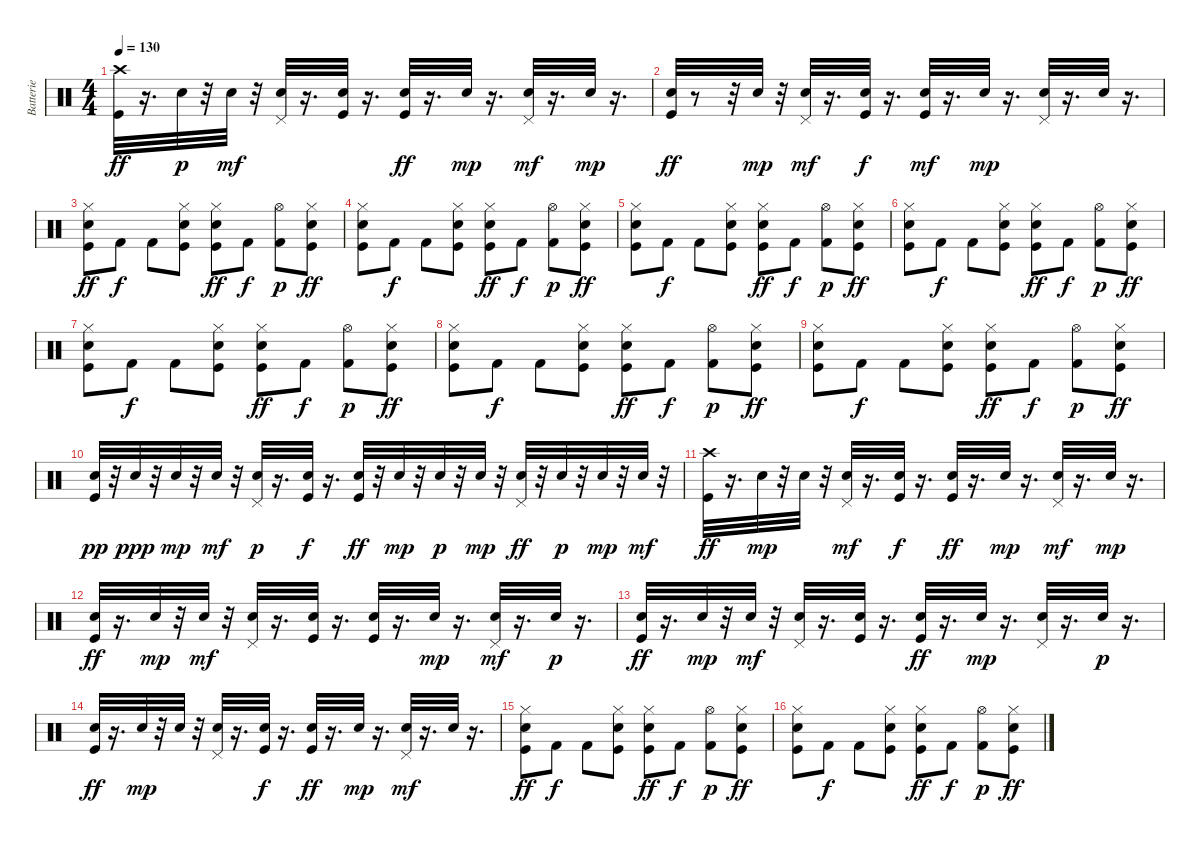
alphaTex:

\track ("Batterie" "Batterie") {instrument percussion}
\staff {score}
\articulation defaults
\ts (4 4)
\tempo 130
\clef neutral
\ks c
("Crash high (hit)" "Kick (hit)").32{dy ff} r.16{d} "Electric Snare (hit)".32{dy p} r.32 "Electric Snare (hit)".32{dy mf} r.32 ("Pedal Hi-Hat (hit)" "Electric Snare (hit)").32 r.16{d} ("Electric Snare (hit)" "Kick (hit)").32 r.16{d} ("Kick (hit)" "Electric Snare (hit)").32{dy ff} r.16{d} "Electric Snare (hit)".32{dy mp} r.16{d} ("Pedal Hi-Hat (hit)" "Electric Snare (hit)").32{dy mf} r.16{d} "Electric Snare (hit)".32{dy mp} r.16{d} |
("Kick (hit)" "Electric Snare (hit)").32{dy ff} r.8 r.32 "Electric Snare (hit)".32{dy mp} r.32 ("Pedal Hi-Hat (hit)" "Electric Snare (hit)").32{dy mf} r.16{d} ("Kick (hit)" "Electric Snare (hit)").32{dy f} r.16{d} ("Kick (hit)" "Electric Snare (hit)").32{dy mf} r.16{d} "Electric Snare (hit)".32{dy mp} r.16{d} ("Pedal Hi-Hat (hit)" "Electric Snare (hit)").32 r.16{d} "Electric Snare (hit)".32 r.16{d} |
("Kick (hit)" "Electric Snare (hit)" "Hi-Hat (closed)").8{dy ff} "Kick (hit) 2".8{dy f} "Kick (hit) 2".8 ("Hi-Hat (closed)" "Kick (hit)" "Electric Snare (hit)").8 ("Kick (hit)" "Hi-Hat (closed)" "Electric Snare (hit)").8{dy ff} "Kick (hit) 2".8{dy f} ("Hi-Hat (open)" "Kick (hit) 2").8{dy p} ("Kick (hit)" "Hi-Hat (closed)" "Electric Snare (hit)").8{dy ff} |
("Kick (hit)" "Electric Snare (hit)" "Hi-Hat (closed)").8 "Kick (hit) 2".8{dy f} "Kick (hit) 2".8 ("Hi-Hat (closed)" "Kick (hit)" "Electric Snare (hit)").8 ("Kick (hit)" "Hi-Hat (closed)" "Electric Snare (hit)").8{dy ff} "Kick (hit) 2".8{dy f} ("Hi-Hat (open)" "Kick (hit) 2").8{dy p} ("Kick (hit)" "Hi-Hat (closed)" "Electric Snare (hit)").8{dy ff} |
("Kick (hit)" "Electric Snare (hit)" "Hi-Hat (closed)").8 "Kick (hit) 2".8{dy f} "Kick (hit) 2".8 ("Hi-Hat (closed)" "Kick (hit)" "Electric Snare (hit)").8 ("Kick (hit)" "Hi-Hat (closed)" "Electric Snare (hit)").8{dy ff} "Kick (hit) 2".8{dy f} ("Hi-Hat (open)" "Kick (hit) 2").8{dy p} ("Kick (hit)" "Hi-Hat (closed)" "Electric Snare (hit)").8{dy ff} |
("Kick (hit)" "Electric Snare (hit)" "Hi-Hat (closed)").8 "Kick (hit) 2".8{dy f} "Kick (hit) 2".8 ("Hi-Hat (closed)" "Kick (hit)" "Electric Snare (hit)").8 ("Kick (hit)" "Hi-Hat (closed)" "Electric Snare (hit)").8{dy ff} "Kick (hit) 2".8{dy f} ("Hi-Hat (open)" "Kick (hit) 2").8{dy p} ("Kick (hit)" "Hi-Hat (closed)" "Electric Snare (hit)").8{dy ff} |
("Kick (hit)" "Electric Snare (hit)" "Hi-Hat (closed)").8 "Kick (hit) 2".8{dy f} "Kick (hit) 2".8 ("Hi-Hat (closed)" "Kick (hit)" "Electric Snare (hit)").8 ("Kick (hit)" "Hi-Hat (closed)" "Electric Snare (hit)").8{dy ff} "Kick (hit) 2".8{dy f} ("Hi-Hat (open)" "Kick (hit) 2").8{dy p} ("Kick (hit)" "Hi-Hat (closed)" "Electric Snare (hit)").8{dy ff} |
("Kick (hit)" "Electric Snare (hit)" "Hi-Hat (closed)").8 "Kick (hit) 2".8{dy f} "Kick (hit) 2".8 ("Hi-Hat (closed)" "Kick (hit)" "Electric Snare (hit)").8 ("Kick (hit)" "Hi-Hat (closed)" "Electric Snare (hit)").8{dy ff} "Kick (hit) 2".8{dy f} ("Hi-Hat (open)" "Kick (hit) 2").8{dy p} ("Kick (hit)" "Hi-Hat (closed)" "Electric Snare (hit)").8{dy ff} |
("Kick (hit)" "Electric Snare (hit)" "Hi-Hat (closed)").8 "Kick (hit) 2".8{dy f} "Kick (hit) 2".8 ("Hi-Hat (closed)" "Kick (hit)" "Electric Snare (hit)").8 ("Kick (hit)" "Hi-Hat (closed)" "Electric Snare (hit)").8{dy ff} "Kick (hit) 2".8{dy f} ("Hi-Hat (open)" "Kick (hit) 2").8{dy p} ("Kick (hit)" "Hi-Hat (closed)" "Electric Snare (hit)").8{dy ff} |
("Kick (hit)" "Electric Snare (hit)").32{dy pp} r.32 "Electric Snare (hit)".32{dy ppp} r.32 "Electric Snare (hit)".32{dy mp} r.32 "Electric Snare (hit)".32{dy mf} r.32 ("Pedal Hi-Hat (hit)" "Electric Snare (hit)").32{dy p} r.16{d} ("Kick (hit)" "Electric Snare (hit)").32{dy f} r.16{d} ("Kick (hit)" "Electric Snare (hit)").32{dy ff} r.32 "Electric Snare (hit)".32{dy mp} r.32 "Electric Snare (hit)".32{dy p} r.32 "Electric Snare (hit)".32{dy mp} r.32 ("Pedal Hi-Hat (hit)" "Electric Snare (hit)").32{dy ff} r.32 "Electric Snare (hit)".32{dy p} r.32 "Electric Snare (hit)".32{dy mp} r.32 "Electric Snare (hit)".32{dy mf} r.32 |
("Crash high (hit)" "Kick (hit)").32{dy ff} r.16{d} "Electric Snare (hit)".32{dy mp} r.32 "Electric Snare (hit)".32 r.32 ("Pedal Hi-Hat (hit)" "Electric Snare (hit)").32{dy mf} r.16{d} ("Electric Snare (hit)" "Kick (hit)").32{dy f} r.16{d} ("Kick (hit)" "Electric Snare (hit)").32{dy ff} r.16{d} "Electric Snare (hit)".32{dy mp} r.16{d} ("Pedal Hi-Hat (hit)" "Electric Snare (hit)").32{dy mf} r.16{d} "Electric Snare (hit)".32{dy mp} r.16{d} |
("Electric Snare (hit)" "Kick (hit)").32{dy ff} r.16{d} "Electric Snare (hit)".32{dy mp} r.32 "Electric Snare (hit)".32{dy mf} r.32 ("Pedal Hi-Hat (hit)" "Electric Snare (hit)").32 r.16{d} ("Kick (hit)" "Electric Snare (hit)").32 r.16{d} ("Kick (hit)" "Electric Snare (hit)").32 r.16{d} "Electric Snare (hit)".32{dy mp} r.16{d} ("Pedal Hi-Hat (hit)" "Electric Snare (hit)").32{dy mf} r.16{d} "Electric Snare (hit)".32{dy p} r.16{d} |
("Kick (hit)" "Electric Snare (hit)").32{dy ff} r.16{d} "Electric Snare (hit)".32{dy mp} r.32 "Electric Snare (hit)".32{dy mf} r.32 ("Pedal Hi-Hat (hit)" "Electric Snare (hit)").32 r.16{d} ("Electric Snare (hit)" "Kick (hit)").32 r.16{d} ("Kick (hit)" "Electric Snare (hit)").32{dy ff} r.16{d} "Electric Snare (hit)".32{dy mp} r.16{d} ("Electric Snare (hit)" "Pedal Hi-Hat (hit)").32 r.16{d} "Electric Snare (hit)".32{dy p} r.16{d} |
("Electric Snare (hit)" "Kick (hit)").32{dy ff} r.16{d} "Electric Snare (hit)".32{dy mp} r.32 "Electric Snare (hit)".32 r.32 ("Pedal Hi-Hat (hit)" "Electric Snare (hit)").32 r.16{d} ("Kick (hit)" "Electric Snare (hit)").32{dy f} r.16{d} ("Kick (hit)" "Electric Snare (hit)").32{dy ff} r.16{d} "Electric Snare (hit)".32{dy mp} r.16{d} ("Pedal Hi-Hat (hit)" "Electric Snare (hit)").32{dy mf} r.16{d} "Electric Snare (hit)".32 r.16{d} |
("Kick (hit)" "Electric Snare (hit)" "Hi-Hat (closed)").8{dy ff} "Kick (hit) 2".8{dy f} "Kick (hit) 2".8 ("Hi-Hat (closed)" "Kick (hit)" "Electric Snare (hit)").8 ("Kick (hit)" "Hi-Hat (closed)" "Electric Snare (hit)").8{dy ff} "Kick (hit) 2".8{dy f} ("Hi-Hat (open)" "Kick (hit) 2").8{dy p} ("Kick (hit)" "Hi-Hat (closed)" "Electric Snare (hit)").8{dy ff} |
("Kick (hit)" "Electric Snare (hit)" "Hi-Hat (closed)").8 "Kick (hit) 2".8{dy f} "Kick (hit) 2".8 ("Hi-Hat (closed)" "Kick (hit)" "Electric Snare (hit)").8 ("Kick (hit)" "Hi-Hat (closed)" "Electric Snare (hit)").8{dy ff} "Kick (hit) 2".8{dy f} ("Hi-Hat (open)" "Kick (hit) 2").8{dy p} ("Kick (hit)" "Hi-Hat (closed)" "Electric Snare (hit)").8{dy ff}
